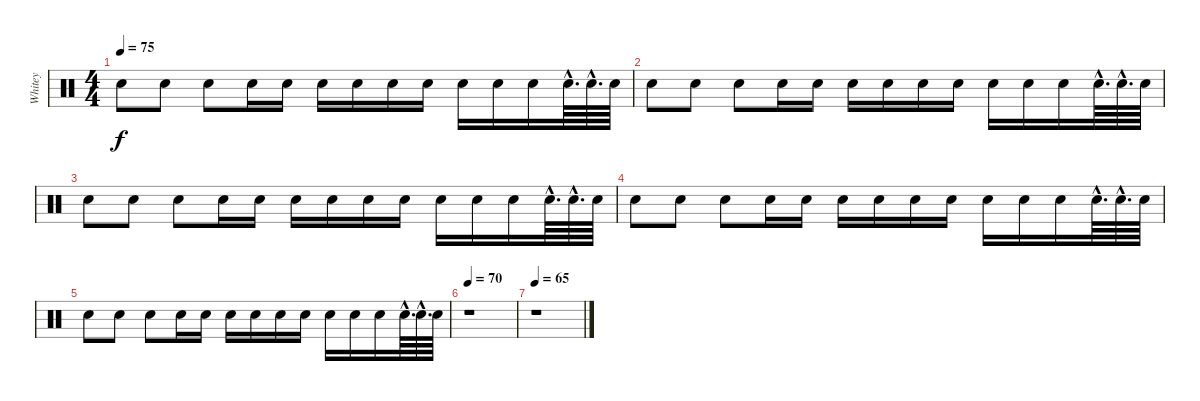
\track ("Whitey" "Whitey") {instrument percussion}
\staff {score}
\articulation defaults
\ts (4 4)
\tempo 75
\clef neutral
\ks c "Snare (hit) 2".8{dy f} "Snare (hit) 2".8 "Snare (hit) 2".8 "Snare (hit) 2".16 "Snare (hit) 2".16 "Snare (hit) 2".16 "Snare (hit) 2".16 "Snare (hit) 2".16 "Snare (hit) 2".16 "Snare (hit) 2".16 "Snare (hit) 2".16 "Snare (hit) 2".16 "Snare (hit) 2"{hac}.64{d} "Snare (hit) 2"{hac}.64{d} "Snare (hit) 2".64
|
"Snare (hit) 2".8 "Snare (hit) 2".8 "Snare (hit) 2".8 "Snare (hit) 2".16 "Snare (hit) 2".16 "Snare (hit) 2".16 "Snare (hit) 2".16 "Snare (hit) 2".16 "Snare (hit) 2".16 "Snare (hit) 2".16 "Snare (hit) 2".16 "Snare (hit) 2".16 "Snare (hit) 2"{hac}.64{d} "Snare (hit) 2"{hac}.64{d} "Snare (hit) 2".64 |
"Snare (hit) 2".8 "Snare (hit) 2".8 "Snare (hit) 2".8 "Snare (hit) 2".16 "Snare (hit) 2".16 "Snare (hit) 2".16 "Snare (hit) 2".16 "Snare (hit) 2".16 "Snare (hit) 2".16 "Snare (hit) 2".16 "Snare (hit) 2".16 "Snare (hit) 2".16 "Snare (hit) 2"{hac}.64{d} "Snare (hit) 2"{hac}.64{d} "Snare (hit) 2".64 |
"Snare (hit) 2".8{volume 0} "Snare (hit) 2".8 "Snare (hit) 2".8 "Snare (hit) 2".16 "Snare (hit) 2".16 "Snare (hit) 2".16 "Snare (hit) 2".16 "Snare (hit) 2".16 "Snare (hit) 2".16 "Snare (hit) 2".16 "Snare (hit) 2".16 "Snare (hit) 2".16 "Snare (hit) 2"{hac}.64{d} "Snare (hit) 2"{hac}.64{d} "Snare (hit) 2".64 |
"Snare (hit) 2".8 "Snare (hit) 2".8 "Snare (hit) 2".8 "Snare (hit) 2".16 "Snare (hit) 2".16 "Snare (hit) 2".16 "Snare (hit) 2".16 "Snare (hit) 2".16 "Snare (hit) 2".16 "Snare (hit) 2".16 "Snare (hit) 2".16 "Snare (hit) 2".16 "Snare (hit) 2"{hac}.64{d} "Snare (hit) 2"{hac}.64{d} "Snare (hit) 2".64 |
\tempo 70
r.1 |
\tempo 65
r.1
